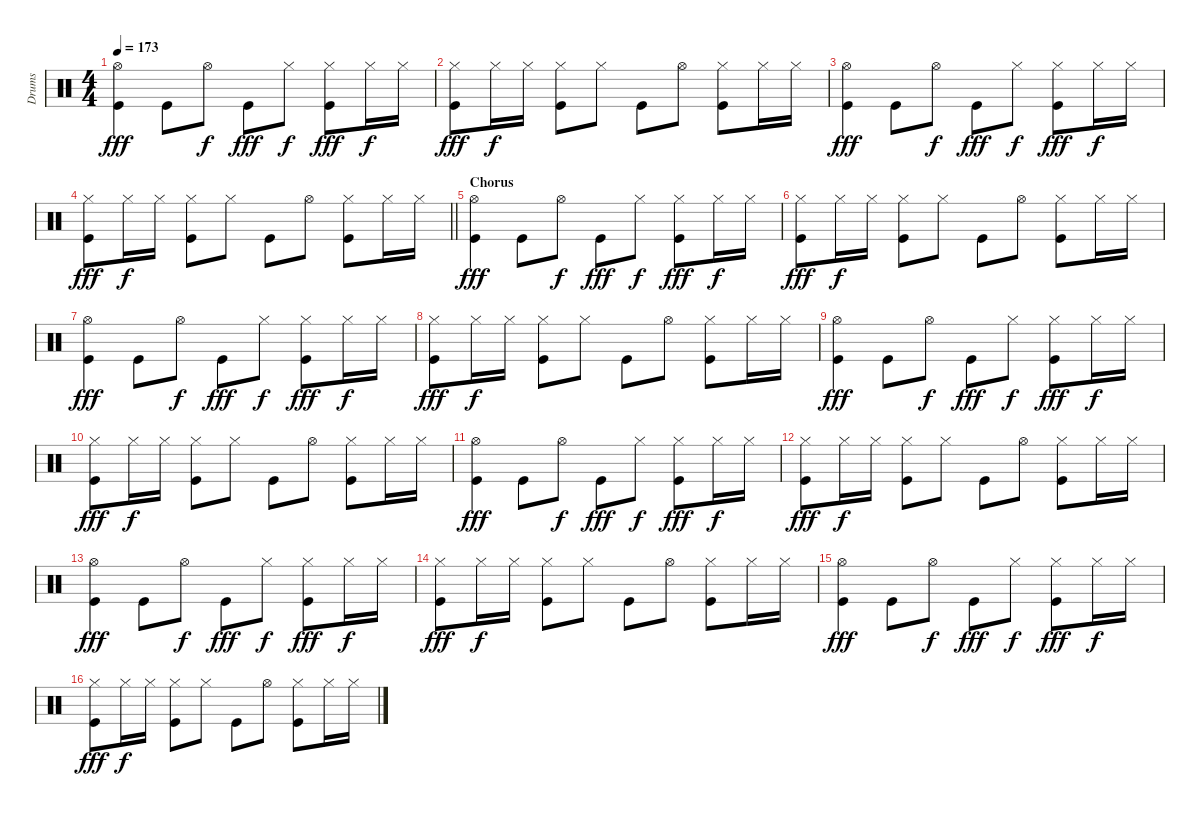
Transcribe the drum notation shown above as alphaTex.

\track ("Drums" "Drums") {instrument percussion}
\staff {score}
\articulation defaults
\ts (4 4)
\tempo 173
\clef neutral
\ks c
("Kick (hit)" "Hi-Hat (open)").4{dy fff} "Kick (hit)".8 "Hi-Hat (open)".8{dy f} "Kick (hit)".8{dy fff} "Hi-Hat (closed)".8{dy f} ("Kick (hit)" "Hi-Hat (closed)").8{dy fff} "Hi-Hat (closed)".16{dy f} "Hi-Hat (closed)".16 |
("Kick (hit)" "Hi-Hat (closed)").8{dy fff} "Hi-Hat (closed)".16{dy f} "Hi-Hat (closed)".16 ("Kick (hit)" "Hi-Hat (closed)").8 "Hi-Hat (closed)".8 "Kick (hit)".8 "Hi-Hat (open)".8 ("Kick (hit)" "Hi-Hat (closed)").8 "Hi-Hat (closed)".16 "Hi-Hat (closed)".16 |
("Kick (hit)" "Hi-Hat (open)").4{dy fff} "Kick (hit)".8 "Hi-Hat (open)".8{dy f} "Kick (hit)".8{dy fff} "Hi-Hat (closed)".8{dy f} ("Kick (hit)" "Hi-Hat (closed)").8{dy fff} "Hi-Hat (closed)".16{dy f} "Hi-Hat (closed)".16 |
\barLineRight lightlight
("Kick (hit)" "Hi-Hat (closed)").8{dy fff} "Hi-Hat (closed)".16{dy f} "Hi-Hat (closed)".16 ("Kick (hit)" "Hi-Hat (closed)").8 "Hi-Hat (closed)".8 "Kick (hit)".8 "Hi-Hat (open)".8 ("Kick (hit)" "Hi-Hat (closed)").8 "Hi-Hat (closed)".16 "Hi-Hat (closed)".16 |
\section ("" "Chorus")
("Kick (hit)" "Hi-Hat (open)").4{dy fff} "Kick (hit)".8 "Hi-Hat (open)".8{dy f} "Kick (hit)".8{dy fff} "Hi-Hat (closed)".8{dy f} ("Kick (hit)" "Hi-Hat (closed)").8{dy fff} "Hi-Hat (closed)".16{dy f} "Hi-Hat (closed)".16 |
("Kick (hit)" "Hi-Hat (closed)").8{dy fff} "Hi-Hat (closed)".16{dy f} "Hi-Hat (closed)".16 ("Kick (hit)" "Hi-Hat (closed)").8 "Hi-Hat (closed)".8 "Kick (hit)".8 "Hi-Hat (open)".8 ("Kick (hit)" "Hi-Hat (closed)").8 "Hi-Hat (closed)".16 "Hi-Hat (closed)".16 |
("Kick (hit)" "Hi-Hat (open)").4{dy fff} "Kick (hit)".8 "Hi-Hat (open)".8{dy f} "Kick (hit)".8{dy fff} "Hi-Hat (closed)".8{dy f} ("Kick (hit)" "Hi-Hat (closed)").8{dy fff} "Hi-Hat (closed)".16{dy f} "Hi-Hat (closed)".16 |
("Kick (hit)" "Hi-Hat (closed)").8{dy fff} "Hi-Hat (closed)".16{dy f} "Hi-Hat (closed)".16 ("Kick (hit)" "Hi-Hat (closed)").8 "Hi-Hat (closed)".8 "Kick (hit)".8 "Hi-Hat (open)".8 ("Kick (hit)" "Hi-Hat (closed)").8 "Hi-Hat (closed)".16 "Hi-Hat (closed)".16 |
("Kick (hit)" "Hi-Hat (open)").4{dy fff} "Kick (hit)".8 "Hi-Hat (open)".8{dy f} "Kick (hit)".8{dy fff} "Hi-Hat (closed)".8{dy f} ("Kick (hit)" "Hi-Hat (closed)").8{dy fff} "Hi-Hat (closed)".16{dy f} "Hi-Hat (closed)".16 |
("Kick (hit)" "Hi-Hat (closed)").8{dy fff} "Hi-Hat (closed)".16{dy f} "Hi-Hat (closed)".16 ("Kick (hit)" "Hi-Hat (closed)").8 "Hi-Hat (closed)".8 "Kick (hit)".8 "Hi-Hat (open)".8 ("Kick (hit)" "Hi-Hat (closed)").8 "Hi-Hat (closed)".16 "Hi-Hat (closed)".16 |
("Kick (hit)" "Hi-Hat (open)").4{dy fff} "Kick (hit)".8 "Hi-Hat (open)".8{dy f} "Kick (hit)".8{dy fff} "Hi-Hat (closed)".8{dy f} ("Kick (hit)" "Hi-Hat (closed)").8{dy fff} "Hi-Hat (closed)".16{dy f} "Hi-Hat (closed)".16 |
("Kick (hit)" "Hi-Hat (closed)").8{dy fff} "Hi-Hat (closed)".16{dy f} "Hi-Hat (closed)".16 ("Kick (hit)" "Hi-Hat (closed)").8 "Hi-Hat (closed)".8 "Kick (hit)".8 "Hi-Hat (open)".8 ("Kick (hit)" "Hi-Hat (closed)").8 "Hi-Hat (closed)".16 "Hi-Hat (closed)".16 |
("Kick (hit)" "Hi-Hat (open)").4{dy fff} "Kick (hit)".8 "Hi-Hat (open)".8{dy f} "Kick (hit)".8{dy fff} "Hi-Hat (closed)".8{dy f} ("Kick (hit)" "Hi-Hat (closed)").8{dy fff} "Hi-Hat (closed)".16{dy f} "Hi-Hat (closed)".16 |
("Kick (hit)" "Hi-Hat (closed)").8{dy fff} "Hi-Hat (closed)".16{dy f} "Hi-Hat (closed)".16 ("Kick (hit)" "Hi-Hat (closed)").8 "Hi-Hat (closed)".8 "Kick (hit)".8 "Hi-Hat (open)".8 ("Kick (hit)" "Hi-Hat (closed)").8 "Hi-Hat (closed)".16 "Hi-Hat (closed)".16 |
("Kick (hit)" "Hi-Hat (open)").4{dy fff} "Kick (hit)".8 "Hi-Hat (open)".8{dy f} "Kick (hit)".8{dy fff} "Hi-Hat (closed)".8{dy f} ("Kick (hit)" "Hi-Hat (closed)").8{dy fff} "Hi-Hat (closed)".16{dy f} "Hi-Hat (closed)".16 |
("Kick (hit)" "Hi-Hat (closed)").8{dy fff} "Hi-Hat (closed)".16{dy f} "Hi-Hat (closed)".16 ("Kick (hit)" "Hi-Hat (closed)").8 "Hi-Hat (closed)".8 "Kick (hit)".8 "Hi-Hat (open)".8 ("Kick (hit)" "Hi-Hat (closed)").8 "Hi-Hat (closed)".16 "Hi-Hat (closed)".16
